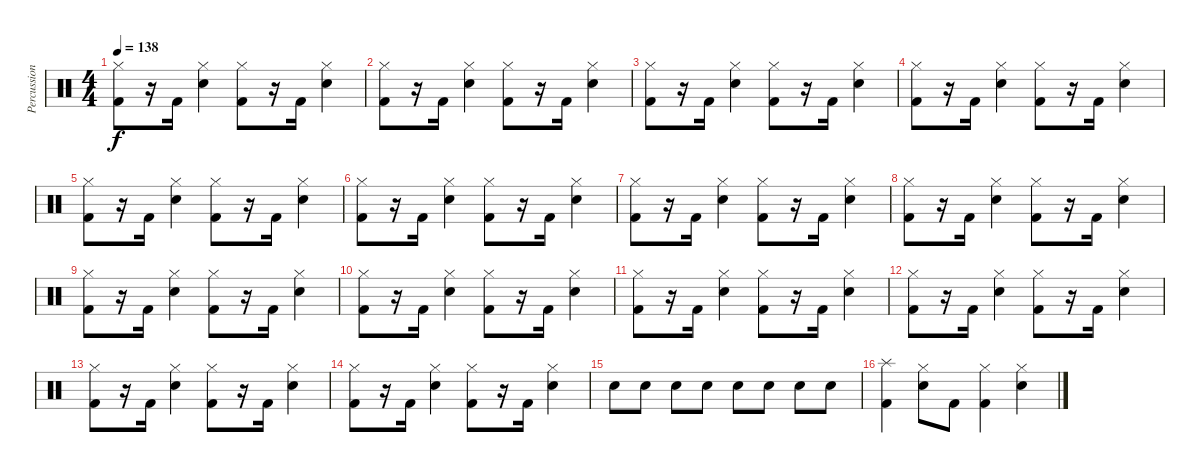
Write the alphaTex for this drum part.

\track ("Percussions" "Percussion") {instrument percussion}
\staff {score}
\articulation defaults
\ts (4 4)
\tempo 138
\clef neutral
\ks c
("Hi-Hat (closed)" "Kick (hit) 2").8{dy f} r.16 "Kick (hit) 2".16 ("Hi-Hat (closed)" "Snare (hit) 2").4 ("Hi-Hat (closed)" "Kick (hit) 2").8 r.16 "Kick (hit) 2".16 ("Hi-Hat (closed)" "Snare (hit) 2").4 |
("Hi-Hat (closed)" "Kick (hit) 2").8 r.16 "Kick (hit) 2".16 ("Hi-Hat (closed)" "Snare (hit) 2").4 ("Hi-Hat (closed)" "Kick (hit) 2").8 r.16 "Kick (hit) 2".16 ("Hi-Hat (closed)" "Snare (hit) 2").4 |
("Hi-Hat (closed)" "Kick (hit) 2").8 r.16 "Kick (hit) 2".16 ("Hi-Hat (closed)" "Snare (hit) 2").4 ("Hi-Hat (closed)" "Kick (hit) 2").8 r.16 "Kick (hit) 2".16 ("Hi-Hat (closed)" "Snare (hit) 2").4 |
("Hi-Hat (closed)" "Kick (hit) 2").8 r.16 "Kick (hit) 2".16 ("Hi-Hat (closed)" "Snare (hit) 2").4 ("Hi-Hat (closed)" "Kick (hit) 2").8 r.16 "Kick (hit) 2".16 ("Hi-Hat (closed)" "Snare (hit) 2").4 |
("Hi-Hat (closed)" "Kick (hit) 2").8 r.16 "Kick (hit) 2".16 ("Hi-Hat (closed)" "Snare (hit) 2").4 ("Hi-Hat (closed)" "Kick (hit) 2").8 r.16 "Kick (hit) 2".16 ("Hi-Hat (closed)" "Snare (hit) 2").4 |
("Hi-Hat (closed)" "Kick (hit) 2").8 r.16 "Kick (hit) 2".16 ("Hi-Hat (closed)" "Snare (hit) 2").4 ("Hi-Hat (closed)" "Kick (hit) 2").8 r.16 "Kick (hit) 2".16 ("Hi-Hat (closed)" "Snare (hit) 2").4 |
("Hi-Hat (closed)" "Kick (hit) 2").8 r.16 "Kick (hit) 2".16 ("Hi-Hat (closed)" "Snare (hit) 2").4 ("Hi-Hat (closed)" "Kick (hit) 2").8 r.16 "Kick (hit) 2".16 ("Hi-Hat (closed)" "Snare (hit) 2").4 |
("Hi-Hat (closed)" "Kick (hit) 2").8 r.16 "Kick (hit) 2".16 ("Hi-Hat (closed)" "Snare (hit) 2").4 ("Hi-Hat (closed)" "Kick (hit) 2").8 r.16 "Kick (hit) 2".16 ("Hi-Hat (closed)" "Snare (hit) 2").4 |
("Hi-Hat (closed)" "Kick (hit) 2").8 r.16 "Kick (hit) 2".16 ("Hi-Hat (closed)" "Snare (hit) 2").4 ("Hi-Hat (closed)" "Kick (hit) 2").8 r.16 "Kick (hit) 2".16 ("Hi-Hat (closed)" "Snare (hit) 2").4 |
("Hi-Hat (closed)" "Kick (hit) 2").8 r.16 "Kick (hit) 2".16 ("Hi-Hat (closed)" "Snare (hit) 2").4 ("Hi-Hat (closed)" "Kick (hit) 2").8 r.16 "Kick (hit) 2".16 ("Hi-Hat (closed)" "Snare (hit) 2").4 |
("Hi-Hat (closed)" "Kick (hit) 2").8 r.16 "Kick (hit) 2".16 ("Hi-Hat (closed)" "Snare (hit) 2").4 ("Hi-Hat (closed)" "Kick (hit) 2").8 r.16 "Kick (hit) 2".16 ("Hi-Hat (closed)" "Snare (hit) 2").4 |
("Hi-Hat (closed)" "Kick (hit) 2").8 r.16 "Kick (hit) 2".16 ("Hi-Hat (closed)" "Snare (hit) 2").4 ("Hi-Hat (closed)" "Kick (hit) 2").8 r.16 "Kick (hit) 2".16 ("Hi-Hat (closed)" "Snare (hit) 2").4 |
("Hi-Hat (closed)" "Kick (hit) 2").8 r.16 "Kick (hit) 2".16 ("Hi-Hat (closed)" "Snare (hit) 2").4 ("Hi-Hat (closed)" "Kick (hit) 2").8 r.16 "Kick (hit) 2".16 ("Hi-Hat (closed)" "Snare (hit) 2").4 |
("Hi-Hat (closed)" "Kick (hit) 2").8 r.16 "Kick (hit) 2".16 ("Hi-Hat (closed)" "Snare (hit) 2").4 ("Hi-Hat (closed)" "Kick (hit) 2").8 r.16 "Kick (hit) 2".16 ("Hi-Hat (closed)" "Snare (hit) 2").4 |
"Snare (hit) 2".8 "Snare (hit) 2".8 "Snare (hit) 2".8 "Snare (hit) 2".8 "Snare (hit) 2".8 "Snare (hit) 2".8 "Snare (hit) 2".8 "Snare (hit) 2".8 |
("Splash (hit)" "Kick (hit) 2").4 ("Hi-Hat (closed)" "Snare (hit) 2").8 "Kick (hit) 2".8 ("Hi-Hat (closed)" "Kick (hit) 2").4 ("Hi-Hat (closed)" "Snare (hit) 2").4
